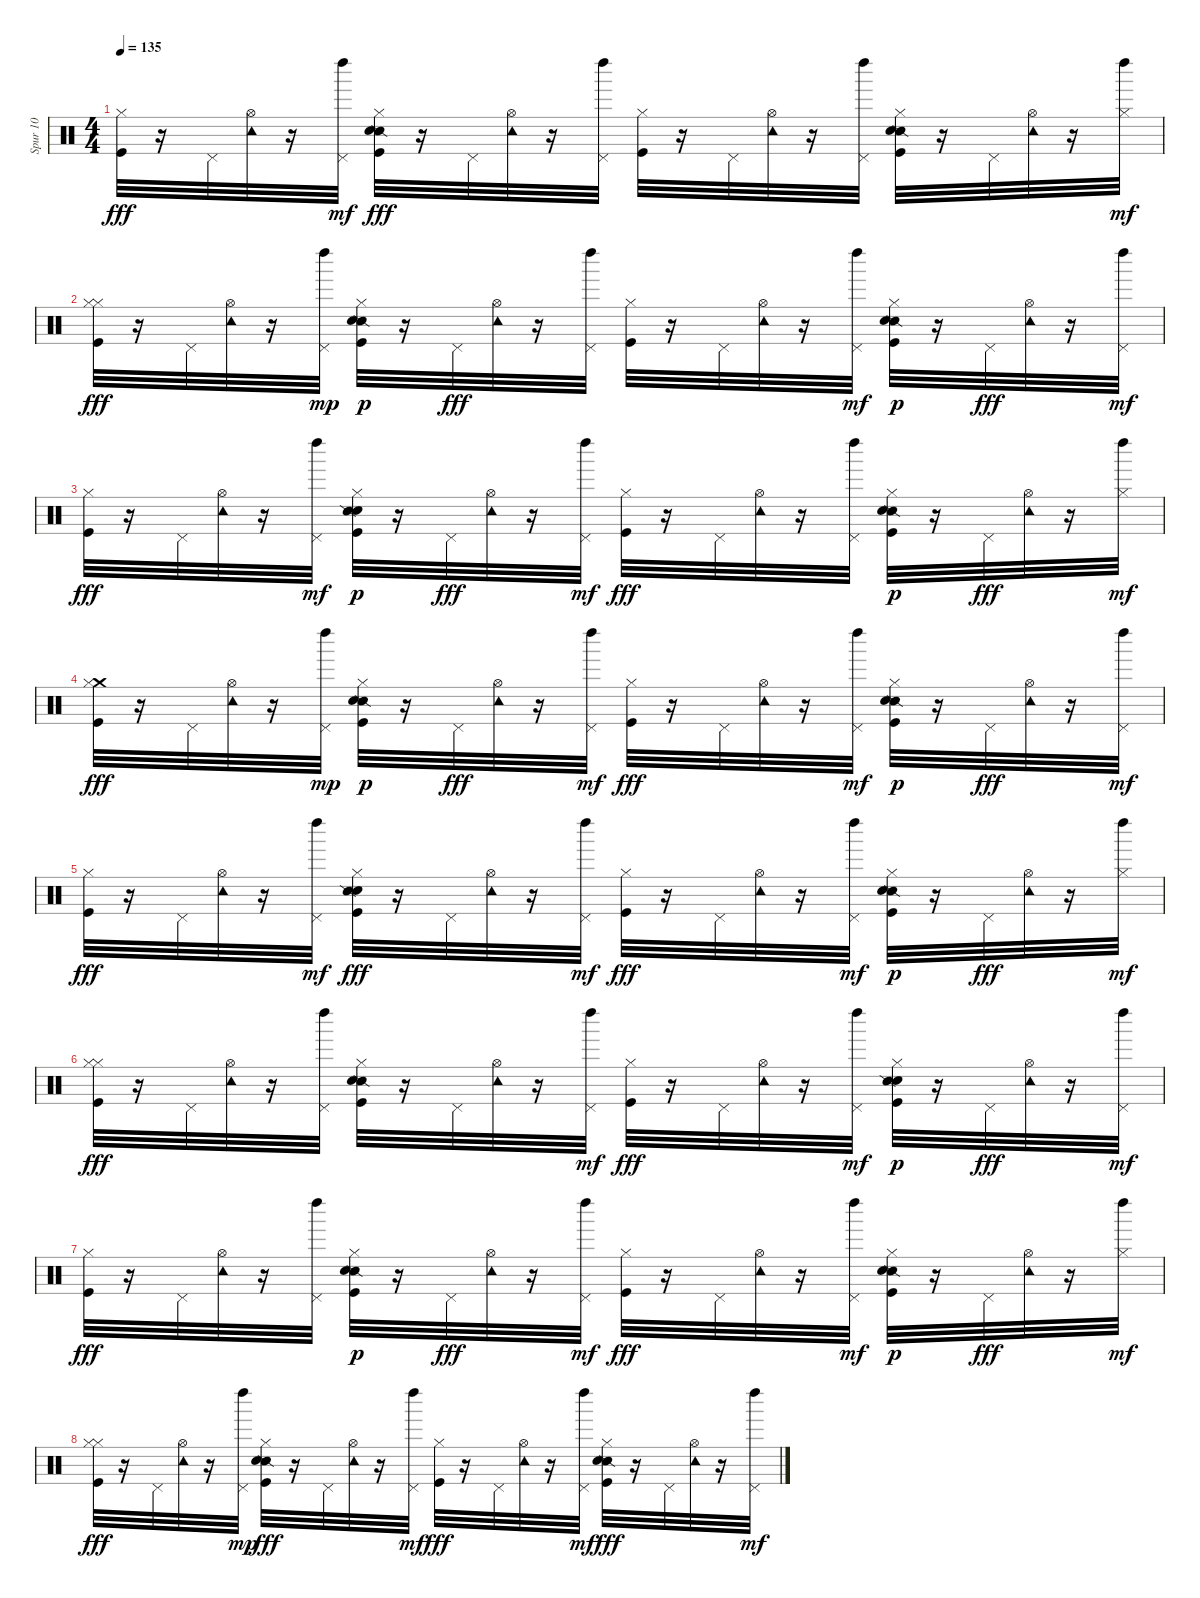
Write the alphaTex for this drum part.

\track ("Spur 10" "Spur 10") {instrument percussion}
\staff {score}
\articulation defaults
\ts (4 4)
\tempo 135
\clef neutral
\ks c
("Hi-Hat (closed)" "Kick (hit)").32{dy fff} r.16 "Pedal Hi-Hat (hit)".32 ("Tambourine (hit)" "Hi-Hat (open)").32 r.16 ("Pedal Hi-Hat (hit)" "Left Maraca (hit)").32{dy mf} ("Snare (side stick) 2" "Hi-Hat (closed)" "Hand Clap (hit)" "Kick (hit)").32{dy fff} r.16 "Pedal Hi-Hat (hit)".32 ("Tambourine (hit)" "Hi-Hat (open)").32 r.16 ("Left Maraca (hit)" "Pedal Hi-Hat (hit)").32 ("Kick (hit)" "Hi-Hat (closed)").32 r.16 "Pedal Hi-Hat (hit)".32 ("Tambourine (hit)" "Hi-Hat (open)").32 r.16 ("Left Maraca (hit)" "Pedal Hi-Hat (hit)").32 ("Snare (side stick) 2" "Hi-Hat (closed)" "Hand Clap (hit)" "Kick (hit)").32 r.16 "Pedal Hi-Hat (hit)".32 ("Hi-Hat (open)" "Tambourine (hit)").32 r.16 ("Hi-Hat (closed)" "Left Maraca (hit)").32{dy mf} |
("Kick (hit)" "Hi-Hat (closed)" "Hi-Hat (closed)").32{dy fff} r.16 "Pedal Hi-Hat (hit)".32 ("Tambourine (hit)" "Hi-Hat (open)").32 r.16 ("Pedal Hi-Hat (hit)" "Left Maraca (hit)").32{dy mp} ("Snare (side stick) 2" "Kick (hit)" "Hi-Hat (closed)" "Hand Clap (hit)").32{dy p} r.16 "Pedal Hi-Hat (hit)".32{dy fff} ("Tambourine (hit)" "Hi-Hat (open)").32 r.16 ("Left Maraca (hit)" "Pedal Hi-Hat (hit)").32 ("Kick (hit)" "Hi-Hat (closed)").32 r.16 "Pedal Hi-Hat (hit)".32 ("Hi-Hat (open)" "Tambourine (hit)").32 r.16 ("Pedal Hi-Hat (hit)" "Left Maraca (hit)").32{dy mf} ("Snare (side stick) 2" "Hi-Hat (closed)" "Kick (hit)" "Hand Clap (hit)").32{dy p} r.16 "Pedal Hi-Hat (hit)".32{dy fff} ("Hi-Hat (open)" "Tambourine (hit)").32 r.16 ("Left Maraca (hit)" "Pedal Hi-Hat (hit)").32{dy mf} |
("Hi-Hat (closed)" "Kick (hit)").32{dy fff} r.16 "Pedal Hi-Hat (hit)".32 ("Hi-Hat (open)" "Tambourine (hit)").32 r.16 ("Pedal Hi-Hat (hit)" "Left Maraca (hit)").32{dy mf} ("Hi-Hat (closed)" "Kick (hit)" "Hand Clap (hit)" "Snare (side stick) 2").32{dy p} r.16 "Pedal Hi-Hat (hit)".32{dy fff} ("Tambourine (hit)" "Hi-Hat (open)").32 r.16 ("Pedal Hi-Hat (hit)" "Left Maraca (hit)").32{dy mf} ("Hi-Hat (closed)" "Kick (hit)").32{dy fff} r.16 "Pedal Hi-Hat (hit)".32 ("Tambourine (hit)" "Hi-Hat (open)").32 r.16 ("Left Maraca (hit)" "Pedal Hi-Hat (hit)").32 ("Snare (side stick) 2" "Kick (hit)" "Hi-Hat (closed)" "Hand Clap (hit)").32{dy p} r.16 "Pedal Hi-Hat (hit)".32{dy fff} ("Tambourine (hit)" "Hi-Hat (open)").32 r.16 ("Hi-Hat (closed)" "Left Maraca (hit)").32{dy mf} |
("Kick (hit)" "Crash medium (hit)" "Hi-Hat (closed)").32{dy fff} r.16 "Pedal Hi-Hat (hit)".32 ("Hi-Hat (open)" "Tambourine (hit)").32 r.16 ("Pedal Hi-Hat (hit)" "Left Maraca (hit)").32{dy mp} ("Kick (hit)" "Snare (side stick) 2" "Hi-Hat (closed)" "Hand Clap (hit)").32{dy p} r.16 "Pedal Hi-Hat (hit)".32{dy fff} ("Hi-Hat (open)" "Tambourine (hit)").32 r.16 ("Pedal Hi-Hat (hit)" "Left Maraca (hit)").32{dy mf} ("Hi-Hat (closed)" "Kick (hit)").32{dy fff} r.16 "Pedal Hi-Hat (hit)".32 ("Hi-Hat (open)" "Tambourine (hit)").32 r.16 ("Pedal Hi-Hat (hit)" "Left Maraca (hit)").32{dy mf} ("Snare (side stick) 2" "Hi-Hat (closed)" "Kick (hit)" "Hand Clap (hit)").32{dy p} r.16 "Pedal Hi-Hat (hit)".32{dy fff} ("Tambourine (hit)" "Hi-Hat (open)").32 r.16 ("Left Maraca (hit)" "Pedal Hi-Hat (hit)").32{dy mf} |
("Hi-Hat (closed)" "Kick (hit)").32{dy fff} r.16 "Pedal Hi-Hat (hit)".32 ("Tambourine (hit)" "Hi-Hat (open)").32 r.16 ("Pedal Hi-Hat (hit)" "Left Maraca (hit)").32{dy mf} ("Kick (hit)" "Hand Clap (hit)" "Snare (side stick) 2" "Hi-Hat (closed)").32{dy fff} r.16 "Pedal Hi-Hat (hit)".32 ("Tambourine (hit)" "Hi-Hat (open)").32 r.16 ("Pedal Hi-Hat (hit)" "Left Maraca (hit)").32{dy mf} ("Kick (hit)" "Hi-Hat (closed)").32{dy fff} r.16 "Pedal Hi-Hat (hit)".32 ("Hi-Hat (open)" "Tambourine (hit)").32 r.16 ("Pedal Hi-Hat (hit)" "Left Maraca (hit)").32{dy mf} ("Hi-Hat (closed)" "Kick (hit)" "Snare (side stick) 2" "Hand Clap (hit)").32{dy p} r.16 "Pedal Hi-Hat (hit)".32{dy fff} ("Hi-Hat (open)" "Tambourine (hit)").32 r.16 ("Left Maraca (hit)" "Hi-Hat (closed)").32{dy mf} |
("Hi-Hat (closed)" "Kick (hit)" "Hi-Hat (closed)").32{dy fff} r.16 "Pedal Hi-Hat (hit)".32 ("Hi-Hat (open)" "Tambourine (hit)").32 r.16 ("Left Maraca (hit)" "Pedal Hi-Hat (hit)").32 ("Snare (side stick) 2" "Kick (hit)" "Hand Clap (hit)" "Hi-Hat (closed)").32 r.16 "Pedal Hi-Hat (hit)".32 ("Hi-Hat (open)" "Tambourine (hit)").32 r.16 ("Pedal Hi-Hat (hit)" "Left Maraca (hit)").32{dy mf} ("Kick (hit)" "Hi-Hat (closed)").32{dy fff} r.16 "Pedal Hi-Hat (hit)".32 ("Tambourine (hit)" "Hi-Hat (open)").32 r.16 ("Left Maraca (hit)" "Pedal Hi-Hat (hit)").32{dy mf} ("Kick (hit)" "Hi-Hat (closed)" "Hand Clap (hit)" "Snare (side stick) 2").32{dy p} r.16 "Pedal Hi-Hat (hit)".32{dy fff} ("Hi-Hat (open)" "Tambourine (hit)").32 r.16 ("Pedal Hi-Hat (hit)" "Left Maraca (hit)").32{dy mf} |
("Kick (hit)" "Hi-Hat (closed)").32{dy fff} r.16 "Pedal Hi-Hat (hit)".32 ("Tambourine (hit)" "Hi-Hat (open)").32 r.16 ("Left Maraca (hit)" "Pedal Hi-Hat (hit)").32 ("Kick (hit)" "Hi-Hat (closed)" "Snare (side stick) 2" "Hand Clap (hit)").32{dy p} r.16 "Pedal Hi-Hat (hit)".32{dy fff} ("Hi-Hat (open)" "Tambourine (hit)").32 r.16 ("Pedal Hi-Hat (hit)" "Left Maraca (hit)").32{dy mf} ("Hi-Hat (closed)" "Kick (hit)").32{dy fff} r.16 "Pedal Hi-Hat (hit)".32 ("Hi-Hat (open)" "Tambourine (hit)").32 r.16 ("Pedal Hi-Hat (hit)" "Left Maraca (hit)").32{dy mf} ("Kick (hit)" "Snare (side stick) 2" "Hi-Hat (closed)" "Hand Clap (hit)").32{dy p} r.16 "Pedal Hi-Hat (hit)".32{dy fff} ("Hi-Hat (open)" "Tambourine (hit)").32 r.16 ("Hi-Hat (closed)" "Left Maraca (hit)").32{dy mf} |
("Hi-Hat (closed)" "Hi-Hat (closed)" "Kick (hit)").32{dy fff} r.16 "Pedal Hi-Hat (hit)".32 ("Hi-Hat (open)" "Tambourine (hit)").32 r.16 ("Pedal Hi-Hat (hit)" "Left Maraca (hit)").32{dy mp} ("Kick (hit)" "Snare (side stick) 2" "Hand Clap (hit)" "Hi-Hat (closed)").32{dy fff} r.16 "Pedal Hi-Hat (hit)".32 ("Tambourine (hit)" "Hi-Hat (open)").32 r.16 ("Pedal Hi-Hat (hit)" "Left Maraca (hit)").32{dy mf} ("Kick (hit)" "Hi-Hat (closed)").32{dy fff} r.16 "Pedal Hi-Hat (hit)".32 ("Hi-Hat (open)" "Tambourine (hit)").32 r.16 ("Left Maraca (hit)" "Pedal Hi-Hat (hit)").32{dy mf} ("Snare (side stick) 2" "Hi-Hat (closed)" "Hand Clap (hit)" "Kick (hit)").32{dy fff} r.16 "Pedal Hi-Hat (hit)".32 ("Hi-Hat (open)" "Tambourine (hit)").32 r.16 ("Pedal Hi-Hat (hit)" "Left Maraca (hit)").32{dy mf}
